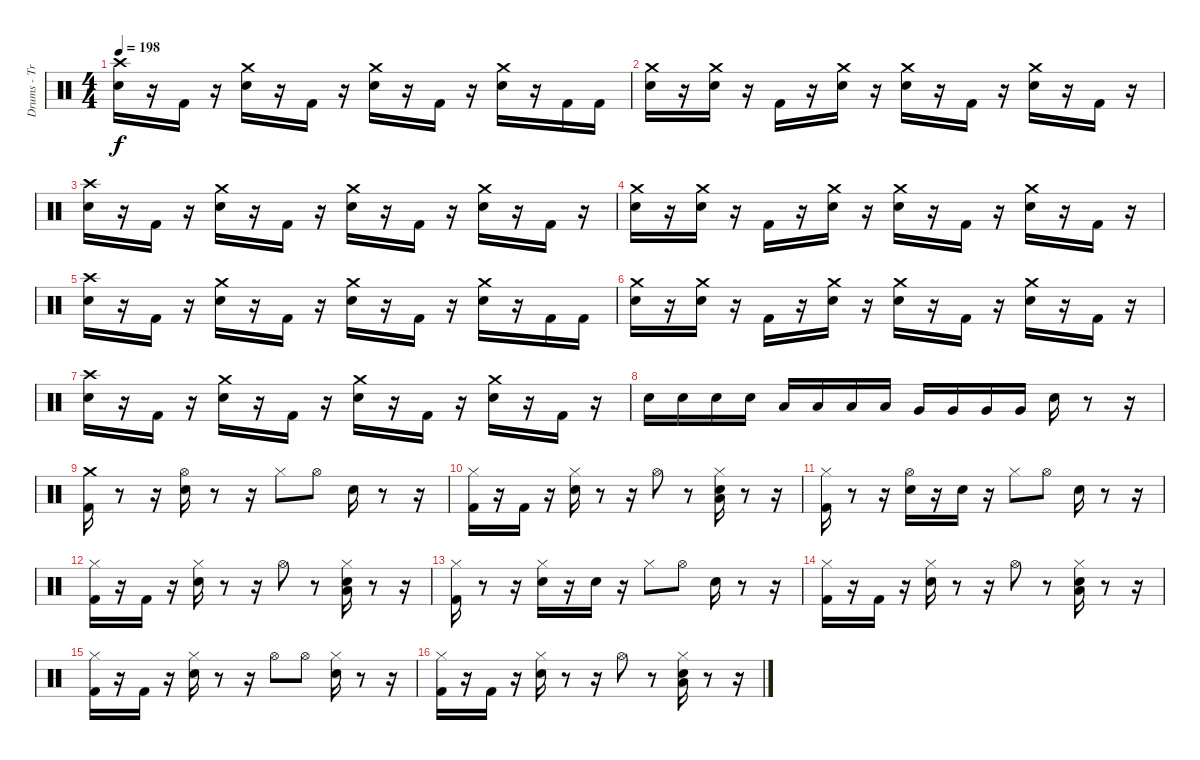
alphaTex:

\track ("Drums - Travis" "Drums - Tr") {instrument percussion}
\staff {score}
\articulation defaults
\ts (4 4)
\tempo 198
\clef neutral
\ks c
("Electric Snare (hit)" "Crash high (hit)").16{dy f} r.16 "Kick (hit) 2".16 r.16 ("Electric Snare (hit)" "Crash medium (hit)").16 r.16 "Kick (hit) 2".16 r.16 ("Electric Snare (hit)" "Crash medium (hit)").16 r.16 "Kick (hit) 2".16 r.16 ("Electric Snare (hit)" "Crash medium (hit)").16 r.16 "Kick (hit) 2".16 "Kick (hit) 2".16 |
("Electric Snare (hit)" "Crash medium (hit)").16 r.16 ("Electric Snare (hit)" "Crash medium (hit)").16 r.16 "Kick (hit) 2".16 r.16 ("Electric Snare (hit)" "Crash medium (hit)").16 r.16 ("Electric Snare (hit)" "Crash medium (hit)").16 r.16 "Kick (hit) 2".16 r.16 ("Electric Snare (hit)" "Crash medium (hit)").16 r.16 "Kick (hit) 2".16 r.16 |
("Electric Snare (hit)" "Crash high (hit)").16 r.16 "Kick (hit) 2".16 r.16 ("Electric Snare (hit)" "Crash medium (hit)").16 r.16 "Kick (hit) 2".16 r.16 ("Electric Snare (hit)" "Crash medium (hit)").16 r.16 "Kick (hit) 2".16 r.16 ("Electric Snare (hit)" "Crash medium (hit)").16 r.16 "Kick (hit) 2".16 r.16 |
("Electric Snare (hit)" "Crash medium (hit)").16 r.16 ("Electric Snare (hit)" "Crash medium (hit)").16 r.16 "Kick (hit) 2".16 r.16 ("Electric Snare (hit)" "Crash medium (hit)").16 r.16 ("Electric Snare (hit)" "Crash medium (hit)").16 r.16 "Kick (hit) 2".16 r.16 ("Electric Snare (hit)" "Crash medium (hit)").16 r.16 "Kick (hit) 2".16 r.16 |
("Electric Snare (hit)" "Crash high (hit)").16 r.16 "Kick (hit) 2".16 r.16 ("Electric Snare (hit)" "Crash medium (hit)").16 r.16 "Kick (hit) 2".16 r.16 ("Electric Snare (hit)" "Crash medium (hit)").16 r.16 "Kick (hit) 2".16 r.16 ("Electric Snare (hit)" "Crash medium (hit)").16 r.16 "Kick (hit) 2".16 "Kick (hit) 2".16 |
("Electric Snare (hit)" "Crash medium (hit)").16 r.16 ("Electric Snare (hit)" "Crash medium (hit)").16 r.16 "Kick (hit) 2".16 r.16 ("Electric Snare (hit)" "Crash medium (hit)").16 r.16 ("Electric Snare (hit)" "Crash medium (hit)").16 r.16 "Kick (hit) 2".16 r.16 ("Electric Snare (hit)" "Crash medium (hit)").16 r.16 "Kick (hit) 2".16 r.16 |
("Electric Snare (hit)" "Crash high (hit)").16 r.16 "Kick (hit) 2".16 r.16 ("Electric Snare (hit)" "Crash medium (hit)").16 r.16 "Kick (hit) 2".16 r.16 ("Electric Snare (hit)" "Crash medium (hit)").16 r.16 "Kick (hit) 2".16 r.16 ("Electric Snare (hit)" "Crash medium (hit)").16 r.16 "Kick (hit) 2".16 r.16 |
"Electric Snare (hit)".16 "Electric Snare (hit)".16 "Electric Snare (hit)".16 "Electric Snare (hit)".16 "Low Tom (hit)".16 "Low Tom (hit)".16 "Low Tom (hit)".16 "Low Tom (hit)".16 "Very Low Tom (hit)".16 "Very Low Tom (hit)".16 "Very Low Tom (hit)".16 "Very Low Tom (hit)".16 "Electric Snare (hit)".16 r.8 r.16 |
("Kick (hit) 2" "Crash medium (hit)").16 r.8 r.16 ("Electric Snare (hit)" "Hi-Hat (open)").16 r.8 r.16 "Hi-Hat (closed)".8 "Hi-Hat (open)".8 "Electric Snare (hit)".16 r.8 r.16 |
("Hi-Hat (closed)" "Kick (hit) 2").16 r.16 "Kick (hit) 2".16 r.16 ("Electric Snare (hit)" "Hi-Hat (closed)").16 r.8 r.16 "Hi-Hat (open)".8 r.8 ("Electric Snare (hit)" "Low Tom (hit)" "Hi-Hat (closed)").16 r.8 r.16 |
("Kick (hit) 2" "Hi-Hat (closed)").16 r.8 r.16 ("Electric Snare (hit)" "Hi-Hat (open)").16 r.16 "Electric Snare (hit)".16 r.16 "Hi-Hat (closed)".8 "Hi-Hat (open)".8 "Electric Snare (hit)".16 r.8 r.16 |
("Hi-Hat (closed)" "Kick (hit) 2").16 r.16 "Kick (hit) 2".16 r.16 ("Electric Snare (hit)" "Hi-Hat (closed)").16 r.8 r.16 "Hi-Hat (open)".8 r.8 ("Electric Snare (hit)" "Low Tom (hit)" "Hi-Hat (closed)").16 r.8 r.16 |
("Kick (hit) 2" "Hi-Hat (closed)").16 r.8 r.16 ("Electric Snare (hit)" "Hi-Hat (closed)").16 r.16 "Electric Snare (hit)".16 r.16 "Hi-Hat (closed)".8 "Hi-Hat (open)".8 "Electric Snare (hit)".16 r.8 r.16 |
("Hi-Hat (closed)" "Kick (hit) 2").16 r.16 "Kick (hit) 2".16 r.16 ("Electric Snare (hit)" "Hi-Hat (closed)").16 r.8 r.16 "Hi-Hat (open)".8 r.8 ("Electric Snare (hit)" "Low Tom (hit)" "Hi-Hat (closed)").16 r.8 r.16 |
("Kick (hit) 2" "Hi-Hat (closed)").16 r.16 "Kick (hit) 2".16 r.16 ("Electric Snare (hit)" "Hi-Hat (closed)").16 r.8 r.16 "Hi-Hat (open)".8 "Hi-Hat (open)".8 ("Electric Snare (hit)" "Hi-Hat (closed)").16 r.8 r.16 |
("Hi-Hat (closed)" "Kick (hit) 2").16 r.16 "Kick (hit) 2".16 r.16 ("Electric Snare (hit)" "Hi-Hat (closed)").16 r.8 r.16 "Hi-Hat (open)".8 r.8 ("Electric Snare (hit)" "Low Tom (hit)" "Hi-Hat (closed)").16 r.8 r.16
